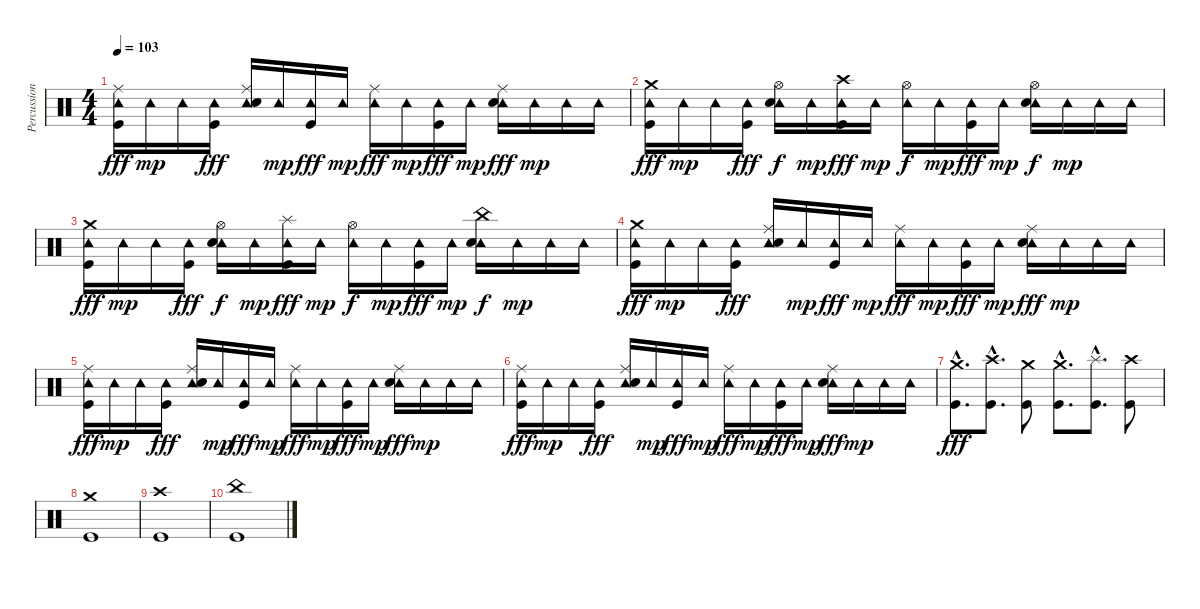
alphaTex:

\track ("Percussion" "Percussion") {instrument percussion}
\staff {score}
\articulation defaults
\ts (4 4)
\tempo 103
\clef neutral
\ks c
("Tambourine (hit)" "Kick (hit)" "Ride (middle)").16{dy fff} "Tambourine (hit)".16{dy mp} "Tambourine (hit)".16 ("Tambourine (hit)" "Kick (hit)").16{dy fff} ("Tambourine (hit)" "Electric Snare (hit)" "Ride (middle)").16 "Tambourine (hit)".16{dy mp} ("Tambourine (hit)" "Kick (hit)").16{dy fff} "Tambourine (hit)".16{dy mp} ("Tambourine (hit)" "Ride (middle)").16{dy fff} "Tambourine (hit)".16{dy mp} ("Tambourine (hit)" "Kick (hit)").16{dy fff} "Tambourine (hit)".16{dy mp} ("Tambourine (hit)" "Electric Snare (hit)" "Ride (middle)").16{dy fff} "Tambourine (hit)".16{dy mp} "Tambourine (hit)".16 "Tambourine (hit)".16 |
("Tambourine (hit)" "Kick (hit)" "Crash medium (hit)").16{dy fff} "Tambourine (hit)".16{dy mp} "Tambourine (hit)".16 ("Tambourine (hit)" "Kick (hit)").16{dy fff} ("Tambourine (hit)" "Electric Snare (hit)" "Hi-Hat (open)").16{dy f} "Tambourine (hit)".16{dy mp} ("Tambourine (hit)" "Kick (hit)" "Crash high (hit)").16{dy fff} "Tambourine (hit)".16{dy mp} ("Tambourine (hit)" "Hi-Hat (open)").16{dy f} "Tambourine (hit)".16{dy mp} ("Tambourine (hit)" "Kick (hit)").16{dy fff} "Tambourine (hit)".16{dy mp} ("Tambourine (hit)" "Electric Snare (hit)" "Hi-Hat (open)").16{dy f} "Tambourine (hit)".16{dy mp} "Tambourine (hit)".16 "Tambourine (hit)".16 |
("Tambourine (hit)" "Kick (hit)" "Crash medium (hit)").16{dy fff} "Tambourine (hit)".16{dy mp} "Tambourine (hit)".16 ("Tambourine (hit)" "Kick (hit)").16{dy fff} ("Tambourine (hit)" "Electric Snare (hit)" "Hi-Hat (open)").16{dy f} "Tambourine (hit)".16{dy mp} ("Tambourine (hit)" "Kick (hit)" "Splash (hit)").16{dy fff} "Tambourine (hit)".16{dy mp} ("Tambourine (hit)" "Hi-Hat (open)").16{dy f} "Tambourine (hit)".16{dy mp} ("Tambourine (hit)" "Kick (hit)").16{dy fff} "Tambourine (hit)".16{dy mp} ("Tambourine (hit)" "Electric Snare (hit)" "China (hit)").16{dy f} "Tambourine (hit)".16{dy mp} "Tambourine (hit)".16 "Tambourine (hit)".16 |
("Tambourine (hit)" "Kick (hit)" "Crash medium (hit)").16{dy fff} "Tambourine (hit)".16{dy mp} "Tambourine (hit)".16 ("Tambourine (hit)" "Kick (hit)").16{dy fff} ("Tambourine (hit)" "Electric Snare (hit)" "Ride (middle)").16 "Tambourine (hit)".16{dy mp} ("Tambourine (hit)" "Kick (hit)").16{dy fff} "Tambourine (hit)".16{dy mp} ("Tambourine (hit)" "Ride (middle)").16{dy fff} "Tambourine (hit)".16{dy mp} ("Tambourine (hit)" "Kick (hit)").16{dy fff} "Tambourine (hit)".16{dy mp} ("Tambourine (hit)" "Electric Snare (hit)" "Ride (middle)").16{dy fff} "Tambourine (hit)".16{dy mp} "Tambourine (hit)".16 "Tambourine (hit)".16 |
("Tambourine (hit)" "Kick (hit)" "Ride (middle)").16{dy fff} "Tambourine (hit)".16{dy mp} "Tambourine (hit)".16 ("Tambourine (hit)" "Kick (hit)").16{dy fff} ("Tambourine (hit)" "Electric Snare (hit)" "Ride (middle)").16 "Tambourine (hit)".16{dy mp} ("Tambourine (hit)" "Kick (hit)").16{dy fff} "Tambourine (hit)".16{dy mp} ("Tambourine (hit)" "Ride (middle)").16{dy fff} "Tambourine (hit)".16{dy mp} ("Tambourine (hit)" "Kick (hit)").16{dy fff} "Tambourine (hit)".16{dy mp} ("Tambourine (hit)" "Electric Snare (hit)" "Ride (middle)").16{dy fff} "Tambourine (hit)".16{dy mp} "Tambourine (hit)".16 "Tambourine (hit)".16 |
("Tambourine (hit)" "Kick (hit)" "Ride (middle)").16{dy fff} "Tambourine (hit)".16{dy mp} "Tambourine (hit)".16 ("Tambourine (hit)" "Kick (hit)").16{dy fff} ("Tambourine (hit)" "Electric Snare (hit)" "Ride (middle)").16 "Tambourine (hit)".16{dy mp} ("Tambourine (hit)" "Kick (hit)").16{dy fff} "Tambourine (hit)".16{dy mp} ("Tambourine (hit)" "Ride (middle)").16{dy fff} "Tambourine (hit)".16{dy mp} ("Tambourine (hit)" "Kick (hit)").16{dy fff} "Tambourine (hit)".16{dy mp} ("Tambourine (hit)" "Electric Snare (hit)" "Ride (middle)").16{dy fff} "Tambourine (hit)".16{dy mp} "Tambourine (hit)".16 "Tambourine (hit)".16 |
("Crash medium (hit)"{hac} "Kick (hit)"{hac}).8{d dy fff} ("Crash high (hit)"{hac} "Kick (hit)"{hac}).8{d} ("Crash medium (hit)" "Kick (hit)").8 ("Crash medium (hit)"{hac} "Kick (hit)"{hac}).8{d} ("Splash (hit)"{hac} "Kick (hit)"{hac}).8{d} ("Crash high (hit)" "Kick (hit)").8 |
("Crash medium (hit)" "Kick (hit)").1 |
("Crash high (hit)" "Kick (hit)").1 |
("China (hit)" "Kick (hit)").1
